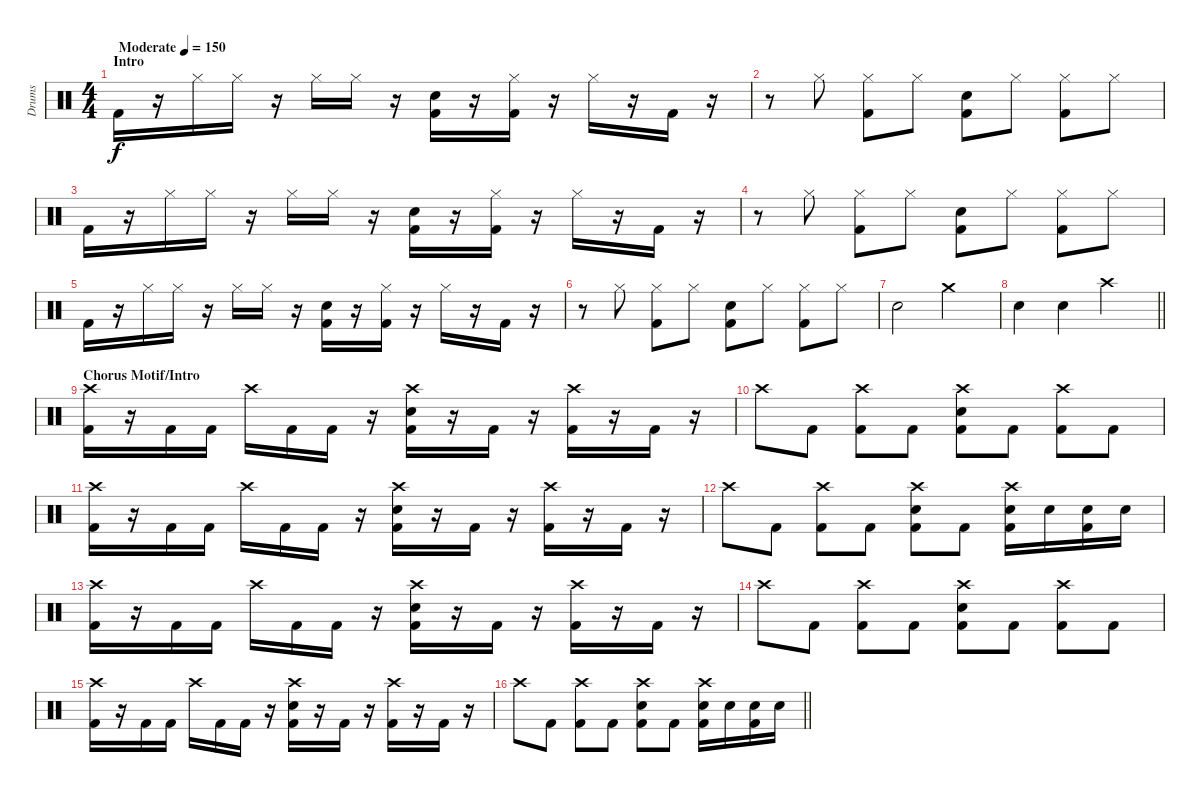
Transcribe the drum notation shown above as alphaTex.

\track ("Drums" "Drums") {instrument percussion}
\staff {score}
\articulation defaults
\ts (4 4)
\section ("" "Intro")
\tempo (150 "Moderate")
\clef neutral
\ks c "Kick (hit) 2".16{dy f}
r.16 "Hi-Hat (closed)".16 "Hi-Hat (closed)".16 r.16 "Hi-Hat (closed)".16 "Hi-Hat (closed)".16 r.16 ("Snare (hit) 2" "Kick (hit) 2").16 r.16 ("Hi-Hat (closed)" "Kick (hit) 2").16 r.16 "Hi-Hat (closed)".16 r.16 "Kick (hit) 2".16 r.16 |
r.8 "Hi-Hat (closed)".8 ("Hi-Hat (closed)" "Kick (hit) 2").8 "Hi-Hat (closed)".8 ("Snare (hit) 2" "Kick (hit) 2").8 "Hi-Hat (closed)".8 ("Hi-Hat (closed)" "Kick (hit) 2").8 "Hi-Hat (closed)".8 |
"Kick (hit) 2".16 r.16 "Hi-Hat (closed)".16 "Hi-Hat (closed)".16 r.16 "Hi-Hat (closed)".16 "Hi-Hat (closed)".16 r.16 ("Snare (hit) 2" "Kick (hit) 2").16 r.16 ("Hi-Hat (closed)" "Kick (hit) 2").16 r.16 "Hi-Hat (closed)".16 r.16 "Kick (hit) 2".16 r.16 |
r.8 "Hi-Hat (closed)".8 ("Hi-Hat (closed)" "Kick (hit) 2").8 "Hi-Hat (closed)".8 ("Snare (hit) 2" "Kick (hit) 2").8 "Hi-Hat (closed)".8 ("Hi-Hat (closed)" "Kick (hit) 2").8 "Hi-Hat (closed)".8 |
"Kick (hit) 2".16 r.16 "Hi-Hat (closed)".16 "Hi-Hat (closed)".16 r.16 "Hi-Hat (closed)".16 "Hi-Hat (closed)".16 r.16 ("Snare (hit) 2" "Kick (hit) 2").16 r.16 ("Hi-Hat (closed)" "Kick (hit) 2").16 r.16 "Hi-Hat (closed)".16 r.16 "Kick (hit) 2".16 r.16 |
r.8 "Hi-Hat (closed)".8 ("Hi-Hat (closed)" "Kick (hit) 2").8 "Hi-Hat (closed)".8 ("Snare (hit) 2" "Kick (hit) 2").8 "Hi-Hat (closed)".8 ("Hi-Hat (closed)" "Kick (hit) 2").8 "Hi-Hat (closed)".8 |
"Snare (hit) 2".2 "Crash medium (hit)".2 |
\barLineRight lightlight "Snare (hit) 2".4 "Snare (hit) 2".4 "Crash high (hit)".2
|
\section ("" "Chorus Motif/Intro")
("Crash high (hit)" "Kick (hit) 2").16 r.16 "Kick (hit) 2".16 "Kick (hit) 2".16 "Crash high (hit)".16 "Kick (hit) 2".16 "Kick (hit) 2".16 r.16 ("Crash high (hit)" "Snare (hit) 2" "Kick (hit) 2").16 r.16 "Kick (hit) 2".16 r.16 ("Crash high (hit)" "Kick (hit) 2").16 r.16 "Kick (hit) 2".16 r.16 |
"Crash high (hit)".8 "Kick (hit) 2".8 ("Crash high (hit)" "Kick (hit) 2").8 "Kick (hit) 2".8 ("Crash high (hit)" "Snare (hit) 2" "Kick (hit) 2").8 "Kick (hit) 2".8 ("Crash high (hit)" "Kick (hit) 2").8 "Kick (hit) 2".8 |
("Crash high (hit)" "Kick (hit) 2").16 r.16 "Kick (hit) 2".16 "Kick (hit) 2".16 "Crash high (hit)".16 "Kick (hit) 2".16 "Kick (hit) 2".16 r.16 ("Crash high (hit)" "Snare (hit) 2" "Kick (hit) 2").16 r.16 "Kick (hit) 2".16 r.16 ("Crash high (hit)" "Kick (hit) 2").16 r.16 "Kick (hit) 2".16 r.16 |
"Crash high (hit)".8 "Kick (hit) 2".8 ("Crash high (hit)" "Kick (hit) 2").8 "Kick (hit) 2".8 ("Crash high (hit)" "Snare (hit) 2" "Kick (hit) 2").8 "Kick (hit) 2".8 ("Crash high (hit)" "Snare (hit) 2" "Kick (hit) 2").16 "Snare (hit) 2".16 ("Snare (hit) 2" "Kick (hit) 2").16 "Snare (hit) 2".16 |
("Crash high (hit)" "Kick (hit) 2").16 r.16 "Kick (hit) 2".16 "Kick (hit) 2".16 "Crash high (hit)".16 "Kick (hit) 2".16 "Kick (hit) 2".16 r.16 ("Crash high (hit)" "Snare (hit) 2" "Kick (hit) 2").16 r.16 "Kick (hit) 2".16 r.16 ("Crash high (hit)" "Kick (hit) 2").16 r.16 "Kick (hit) 2".16 r.16 |
"Crash high (hit)".8 "Kick (hit) 2".8 ("Crash high (hit)" "Kick (hit) 2").8 "Kick (hit) 2".8 ("Crash high (hit)" "Snare (hit) 2" "Kick (hit) 2").8 "Kick (hit) 2".8 ("Crash high (hit)" "Kick (hit) 2").8 "Kick (hit) 2".8 |
("Crash high (hit)" "Kick (hit) 2").16 r.16 "Kick (hit) 2".16 "Kick (hit) 2".16 "Crash high (hit)".16 "Kick (hit) 2".16 "Kick (hit) 2".16 r.16 ("Crash high (hit)" "Snare (hit) 2" "Kick (hit) 2").16 r.16 "Kick (hit) 2".16 r.16 ("Crash high (hit)" "Kick (hit) 2").16 r.16 "Kick (hit) 2".16 r.16 |
\barLineRight lightlight "Crash high (hit)".8 "Kick (hit) 2".8
("Crash high (hit)" "Kick (hit) 2").8 "Kick (hit) 2".8 ("Crash high (hit)" "Snare (hit) 2" "Kick (hit) 2").8 "Kick (hit) 2".8 ("Crash high (hit)" "Snare (hit) 2" "Kick (hit) 2").16 "Snare (hit) 2".16 ("Snare (hit) 2" "Kick (hit) 2").16 "Snare (hit) 2".16
